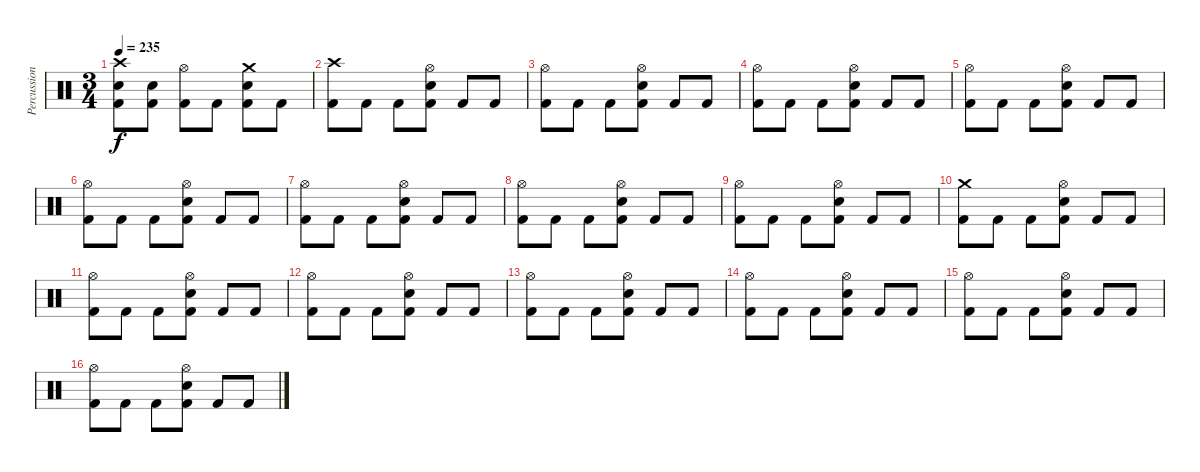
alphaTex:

\track ("Percussion" "Percussion") {instrument percussion}
\staff {score}
\articulation defaults
\ts (3 4)
\tempo 235
\clef neutral
\ks c
("Crash high (hit)" "Electric Snare (hit)" "Kick (hit) 2").8{dy f} ("Electric Snare (hit)" "Kick (hit) 2").8 ("Hi-Hat (open)" "Kick (hit) 2").8 "Kick (hit) 2".8 ("Crash medium (hit)" "Electric Snare (hit)" "Kick (hit) 2").8 "Kick (hit) 2".8 |
("Crash high (hit)" "Kick (hit) 2").8 "Kick (hit) 2".8 "Kick (hit) 2".8 ("Hi-Hat (open)" "Electric Snare (hit)" "Kick (hit) 2").8 "Kick (hit) 2".8 "Kick (hit) 2".8 |
("Hi-Hat (open)" "Kick (hit) 2").8 "Kick (hit) 2".8 "Kick (hit) 2".8 ("Hi-Hat (open)" "Electric Snare (hit)" "Kick (hit) 2").8 "Kick (hit) 2".8 "Kick (hit) 2".8 |
("Hi-Hat (open)" "Kick (hit) 2").8 "Kick (hit) 2".8 "Kick (hit) 2".8 ("Hi-Hat (open)" "Electric Snare (hit)" "Kick (hit) 2").8 "Kick (hit) 2".8 "Kick (hit) 2".8 |
("Hi-Hat (open)" "Kick (hit) 2").8 "Kick (hit) 2".8 "Kick (hit) 2".8 ("Hi-Hat (open)" "Electric Snare (hit)" "Kick (hit) 2").8 "Kick (hit) 2".8 "Kick (hit) 2".8 |
("Hi-Hat (open)" "Kick (hit) 2").8 "Kick (hit) 2".8 "Kick (hit) 2".8 ("Hi-Hat (open)" "Electric Snare (hit)" "Kick (hit) 2").8 "Kick (hit) 2".8 "Kick (hit) 2".8 |
("Hi-Hat (open)" "Kick (hit) 2").8 "Kick (hit) 2".8 "Kick (hit) 2".8 ("Hi-Hat (open)" "Electric Snare (hit)" "Kick (hit) 2").8 "Kick (hit) 2".8 "Kick (hit) 2".8 |
("Hi-Hat (open)" "Kick (hit) 2").8 "Kick (hit) 2".8 "Kick (hit) 2".8 ("Hi-Hat (open)" "Electric Snare (hit)" "Kick (hit) 2").8 "Kick (hit) 2".8 "Kick (hit) 2".8 |
("Hi-Hat (open)" "Kick (hit) 2").8 "Kick (hit) 2".8 "Kick (hit) 2".8 ("Hi-Hat (open)" "Electric Snare (hit)" "Kick (hit) 2").8 "Kick (hit) 2".8 "Kick (hit) 2".8 |
("Crash medium (hit)" "Kick (hit) 2").8 "Kick (hit) 2".8 "Kick (hit) 2".8 ("Hi-Hat (open)" "Electric Snare (hit)" "Kick (hit) 2").8 "Kick (hit) 2".8 "Kick (hit) 2".8 |
("Hi-Hat (open)" "Kick (hit) 2").8 "Kick (hit) 2".8 "Kick (hit) 2".8 ("Hi-Hat (open)" "Electric Snare (hit)" "Kick (hit) 2").8 "Kick (hit) 2".8 "Kick (hit) 2".8 |
("Hi-Hat (open)" "Kick (hit) 2").8 "Kick (hit) 2".8 "Kick (hit) 2".8 ("Hi-Hat (open)" "Electric Snare (hit)" "Kick (hit) 2").8 "Kick (hit) 2".8 "Kick (hit) 2".8 |
("Hi-Hat (open)" "Kick (hit) 2").8 "Kick (hit) 2".8 "Kick (hit) 2".8 ("Hi-Hat (open)" "Electric Snare (hit)" "Kick (hit) 2").8 "Kick (hit) 2".8 "Kick (hit) 2".8 |
("Hi-Hat (open)" "Kick (hit) 2").8 "Kick (hit) 2".8 "Kick (hit) 2".8 ("Hi-Hat (open)" "Electric Snare (hit)" "Kick (hit) 2").8 "Kick (hit) 2".8 "Kick (hit) 2".8 |
("Hi-Hat (open)" "Kick (hit) 2").8 "Kick (hit) 2".8 "Kick (hit) 2".8 ("Hi-Hat (open)" "Electric Snare (hit)" "Kick (hit) 2").8 "Kick (hit) 2".8 "Kick (hit) 2".8 |
("Hi-Hat (open)" "Kick (hit) 2").8 "Kick (hit) 2".8 "Kick (hit) 2".8 ("Hi-Hat (open)" "Electric Snare (hit)" "Kick (hit) 2").8 "Kick (hit) 2".8 "Kick (hit) 2".8
